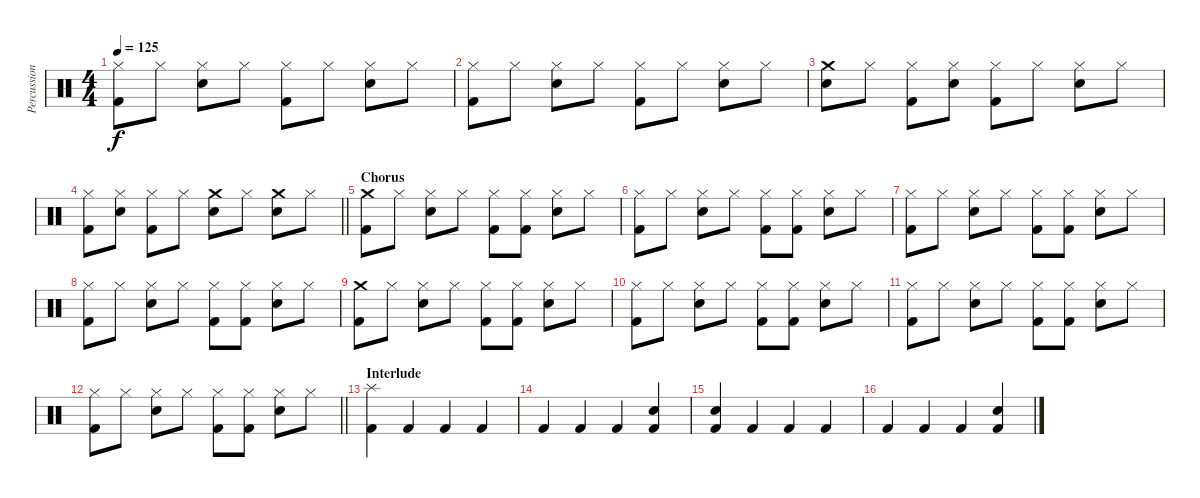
\track ("Percussion" "Percussion") {instrument percussion}
\staff {score}
\articulation defaults
\ts (4 4)
\tempo 125
\clef neutral
\ks c
("Hi-Hat (closed)" "Kick (hit) 2").8{dy f} "Hi-Hat (closed)".8 ("Hi-Hat (closed)" "Snare (hit) 2").8 "Hi-Hat (closed)".8 ("Hi-Hat (closed)" "Kick (hit) 2").8 "Hi-Hat (closed)".8 ("Hi-Hat (closed)" "Snare (hit) 2").8 "Hi-Hat (closed)".8 |
("Hi-Hat (closed)" "Kick (hit) 2").8 "Hi-Hat (closed)".8 ("Hi-Hat (closed)" "Snare (hit) 2").8 "Hi-Hat (closed)".8 ("Hi-Hat (closed)" "Kick (hit) 2").8 "Hi-Hat (closed)".8 ("Hi-Hat (closed)" "Snare (hit) 2").8 "Hi-Hat (closed)".8 |
("Crash medium (hit)" "Snare (hit) 2").8 "Hi-Hat (closed)".8 ("Hi-Hat (closed)" "Kick (hit) 2").8 ("Hi-Hat (closed)" "Snare (hit) 2").8 ("Hi-Hat (closed)" "Kick (hit) 2").8 "Hi-Hat (closed)".8 ("Hi-Hat (closed)" "Snare (hit) 2").8 "Hi-Hat (closed)".8 |
\barLineRight lightlight
("Hi-Hat (closed)" "Kick (hit) 2").8 ("Hi-Hat (closed)" "Snare (hit) 2").8 ("Hi-Hat (closed)" "Kick (hit) 2").8 "Hi-Hat (closed)".8 ("Crash medium (hit)" "Snare (hit) 2").8 "Hi-Hat (closed)".8 ("Crash medium (hit)" "Snare (hit) 2").8 "Hi-Hat (closed)".8 |
\section ("" "Chorus")
("Crash medium (hit)" "Kick (hit) 2").8 "Hi-Hat (closed)".8 ("Hi-Hat (closed)" "Snare (hit) 2").8 "Hi-Hat (closed)".8 ("Hi-Hat (closed)" "Kick (hit) 2").8 ("Hi-Hat (closed)" "Kick (hit) 2").8 ("Hi-Hat (closed)" "Snare (hit) 2").8 "Hi-Hat (closed)".8 |
("Hi-Hat (closed)" "Kick (hit) 2").8 "Hi-Hat (closed)".8 ("Hi-Hat (closed)" "Snare (hit) 2").8 "Hi-Hat (closed)".8 ("Hi-Hat (closed)" "Kick (hit) 2").8 ("Hi-Hat (closed)" "Kick (hit) 2").8 ("Hi-Hat (closed)" "Snare (hit) 2").8 "Hi-Hat (closed)".8 |
("Hi-Hat (closed)" "Kick (hit) 2").8 "Hi-Hat (closed)".8 ("Hi-Hat (closed)" "Snare (hit) 2").8 "Hi-Hat (closed)".8 ("Hi-Hat (closed)" "Kick (hit) 2").8 ("Hi-Hat (closed)" "Kick (hit) 2").8 ("Hi-Hat (closed)" "Snare (hit) 2").8 "Hi-Hat (closed)".8 |
("Hi-Hat (closed)" "Kick (hit) 2").8 "Hi-Hat (closed)".8 ("Hi-Hat (closed)" "Snare (hit) 2").8 "Hi-Hat (closed)".8 ("Hi-Hat (closed)" "Kick (hit) 2").8 ("Hi-Hat (closed)" "Kick (hit) 2").8 ("Hi-Hat (closed)" "Snare (hit) 2").8 "Hi-Hat (closed)".8 |
("Crash medium (hit)" "Kick (hit) 2").8 "Hi-Hat (closed)".8 ("Hi-Hat (closed)" "Snare (hit) 2").8 "Hi-Hat (closed)".8 ("Hi-Hat (closed)" "Kick (hit) 2").8 ("Hi-Hat (closed)" "Kick (hit) 2").8 ("Hi-Hat (closed)" "Snare (hit) 2").8 "Hi-Hat (closed)".8 |
("Hi-Hat (closed)" "Kick (hit) 2").8 "Hi-Hat (closed)".8 ("Hi-Hat (closed)" "Snare (hit) 2").8 "Hi-Hat (closed)".8 ("Hi-Hat (closed)" "Kick (hit) 2").8 ("Hi-Hat (closed)" "Kick (hit) 2").8 ("Hi-Hat (closed)" "Snare (hit) 2").8 "Hi-Hat (closed)".8 |
("Hi-Hat (closed)" "Kick (hit) 2").8 "Hi-Hat (closed)".8 ("Hi-Hat (closed)" "Snare (hit) 2").8 "Hi-Hat (closed)".8 ("Hi-Hat (closed)" "Kick (hit) 2").8 ("Hi-Hat (closed)" "Kick (hit) 2").8 ("Hi-Hat (closed)" "Snare (hit) 2").8 "Hi-Hat (closed)".8 |
\barLineRight lightlight
("Hi-Hat (closed)" "Kick (hit) 2").8 "Hi-Hat (closed)".8 ("Hi-Hat (closed)" "Snare (hit) 2").8 "Hi-Hat (closed)".8 ("Hi-Hat (closed)" "Kick (hit) 2").8 ("Hi-Hat (closed)" "Kick (hit) 2").8 ("Hi-Hat (closed)" "Snare (hit) 2").8 "Hi-Hat (closed)".8 |
\section ("" "Interlude")
("Splash (hit)" "Kick (hit) 2").4 "Kick (hit) 2".4 "Kick (hit) 2".4 "Kick (hit) 2".4 |
"Kick (hit) 2".4 "Kick (hit) 2".4 "Kick (hit) 2".4 ("Snare (hit) 2" "Kick (hit) 2").4 |
("Snare (hit) 2" "Kick (hit) 2").4 "Kick (hit) 2".4 "Kick (hit) 2".4 "Kick (hit) 2".4 |
"Kick (hit) 2".4 "Kick (hit) 2".4 "Kick (hit) 2".4 ("Snare (hit) 2" "Kick (hit) 2").4
